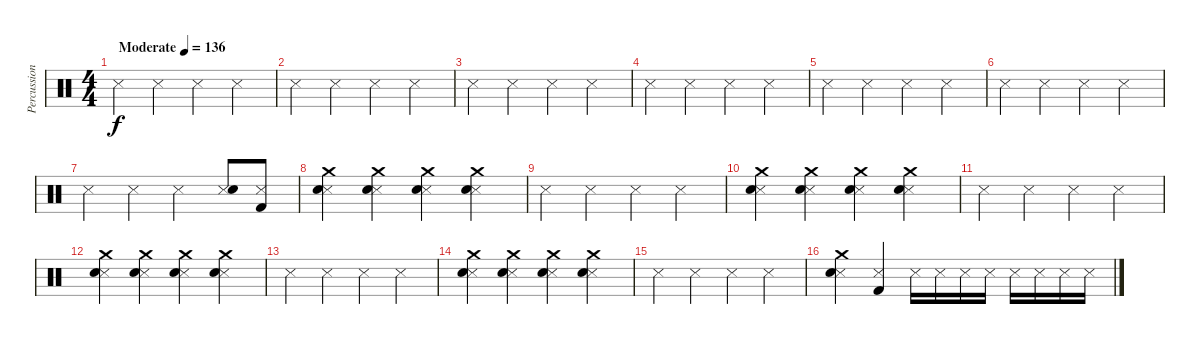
\track ("Percussions" "Percussion") {instrument percussion}
\staff {score}
\articulation defaults
\ts (4 4)
\tempo (136 "Moderate")
\clef neutral
\ks c "Snare (side stick) 3".4{dy f} "Snare (side stick) 3".4 "Snare (side stick) 3".4 "Snare (side stick) 3".4
|
"Snare (side stick) 3".4 "Snare (side stick) 3".4 "Snare (side stick) 3".4 "Snare (side stick) 3".4 |
"Snare (side stick) 3".4 "Snare (side stick) 3".4 "Snare (side stick) 3".4 "Snare (side stick) 3".4 |
"Snare (side stick) 3".4 "Snare (side stick) 3".4 "Snare (side stick) 3".4 "Snare (side stick) 3".4 |
"Snare (side stick) 3".4 "Snare (side stick) 3".4 "Snare (side stick) 3".4 "Snare (side stick) 3".4 |
"Snare (side stick) 3".4 "Snare (side stick) 3".4 "Snare (side stick) 3".4 "Snare (side stick) 3".4 |
"Snare (side stick) 3".4 "Snare (side stick) 3".4 "Snare (side stick) 3".4 ("Snare (side stick) 3" "Electric Snare (hit)").8 ("Snare (side stick) 3" "Kick (hit) 2").8 |
("Snare (side stick) 3" "Electric Snare (hit)" "Crash medium (hit)").4 ("Snare (side stick) 3" "Electric Snare (hit)" "Crash medium (hit)").4 ("Snare (side stick) 3" "Electric Snare (hit)" "Crash medium (hit)").4 ("Snare (side stick) 3" "Electric Snare (hit)" "Crash medium (hit)").4 |
"Snare (side stick) 3".4 "Snare (side stick) 3".4 "Snare (side stick) 3".4 "Snare (side stick) 3".4 |
("Snare (side stick) 3" "Electric Snare (hit)" "Crash medium (hit)").4 ("Snare (side stick) 3" "Electric Snare (hit)" "Crash medium (hit)").4 ("Snare (side stick) 3" "Electric Snare (hit)" "Crash medium (hit)").4 ("Snare (side stick) 3" "Electric Snare (hit)" "Crash medium (hit)").4 |
"Snare (side stick) 3".4 "Snare (side stick) 3".4 "Snare (side stick) 3".4 "Snare (side stick) 3".4 |
("Snare (side stick) 3" "Electric Snare (hit)" "Crash medium (hit)").4 ("Snare (side stick) 3" "Electric Snare (hit)" "Crash medium (hit)").4 ("Snare (side stick) 3" "Electric Snare (hit)" "Crash medium (hit)").4 ("Snare (side stick) 3" "Electric Snare (hit)" "Crash medium (hit)").4 |
"Snare (side stick) 3".4 "Snare (side stick) 3".4 "Snare (side stick) 3".4 "Snare (side stick) 3".4 |
("Snare (side stick) 3" "Electric Snare (hit)" "Crash medium (hit)").4 ("Snare (side stick) 3" "Electric Snare (hit)" "Crash medium (hit)").4 ("Snare (side stick) 3" "Electric Snare (hit)" "Crash medium (hit)").4 ("Snare (side stick) 3" "Electric Snare (hit)" "Crash medium (hit)").4 |
"Snare (side stick) 3".4 "Snare (side stick) 3".4 "Snare (side stick) 3".4 "Snare (side stick) 3".4 |
("Snare (side stick) 3" "Electric Snare (hit)" "Crash medium (hit)").4 ("Snare (side stick) 3" "Kick (hit) 2").4 "Snare (side stick) 3".16 "Snare (side stick) 3".16 "Snare (side stick) 3".16 "Snare (side stick) 3".16 "Snare (side stick) 3".16 "Snare (side stick) 3".16 "Snare (side stick) 3".16 "Snare (side stick) 3".16
